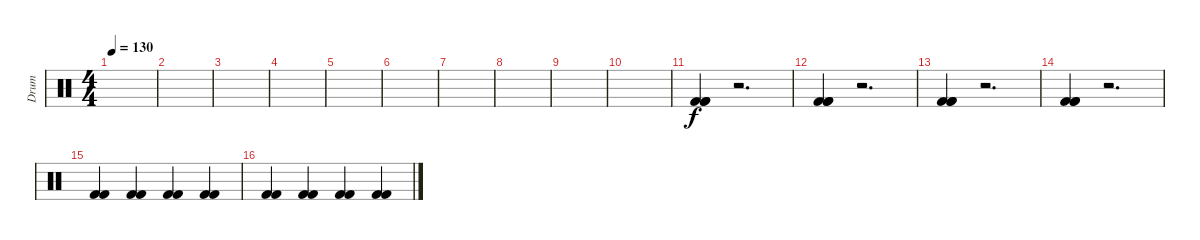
\track ("Drum" "Drum") {instrument percussion}
\staff {score}
\articulation defaults
\ts (4 4)
\tempo 130
\clef neutral
\ks c
|
|
|
|
|
|
|
|
|
|
("Kick (hit) 2" "Kick (hit) 2" "Kick (hit) 2").4 r.2{d} |
("Kick (hit) 2" "Kick (hit) 2" "Kick (hit) 2").4 r.2{d} |
("Kick (hit) 2" "Kick (hit) 2" "Kick (hit) 2").4 r.2{d} |
("Kick (hit) 2" "Kick (hit) 2" "Kick (hit) 2").4 r.2{d} |
("Kick (hit) 2" "Kick (hit) 2").4 ("Kick (hit) 2" "Kick (hit) 2").4 ("Kick (hit) 2" "Kick (hit) 2").4 ("Kick (hit) 2" "Kick (hit) 2").4 |
("Kick (hit) 2" "Kick (hit) 2").4 ("Kick (hit) 2" "Kick (hit) 2").4 ("Kick (hit) 2" "Kick (hit) 2").4 ("Kick (hit) 2" "Kick (hit) 2").4
